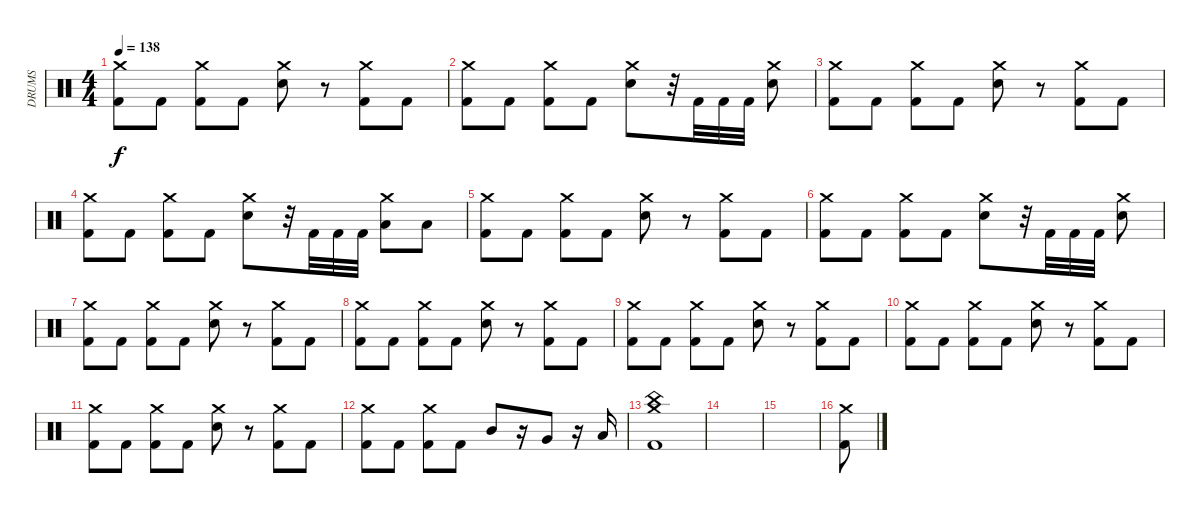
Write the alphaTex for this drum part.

\track ("DRUMS" "DRUMS") {instrument percussion}
\staff {score}
\articulation defaults
\ts (4 4)
\tempo 138
\clef neutral
\ks c
("Crash medium (hit)" "Kick (hit) 2").8{dy f} "Kick (hit) 2".8 ("Crash medium (hit)" "Kick (hit) 2").8 "Kick (hit) 2".8 ("Crash medium (hit)" "Electric Snare (hit)").8 r.8 ("Crash medium (hit)" "Kick (hit) 2").8 "Kick (hit) 2".8 |
("Crash medium (hit)" "Kick (hit) 2").8 "Kick (hit) 2".8 ("Crash medium (hit)" "Kick (hit) 2").8 "Kick (hit) 2".8 ("Crash medium (hit)" "Electric Snare (hit)").8 r.32 "Kick (hit) 2".32 "Kick (hit) 2".32 "Kick (hit) 2".32 ("Crash medium (hit)" "Electric Snare (hit)").8 |
("Crash medium (hit)" "Kick (hit) 2").8 "Kick (hit) 2".8 ("Crash medium (hit)" "Kick (hit) 2").8 "Kick (hit) 2".8 ("Crash medium (hit)" "Electric Snare (hit)").8 r.8 ("Crash medium (hit)" "Kick (hit) 2").8 "Kick (hit) 2".8 |
("Crash medium (hit)" "Kick (hit) 2").8 "Kick (hit) 2".8 ("Crash medium (hit)" "Kick (hit) 2").8 "Kick (hit) 2".8 ("Crash medium (hit)" "Electric Snare (hit)").8 r.32 "Kick (hit) 2".32 "Kick (hit) 2".32 "Kick (hit) 2".32 ("Crash medium (hit)" "Low Floor Tom (hit)").8 "Low Floor Tom (hit)".8 |
("Crash medium (hit)" "Kick (hit) 2").8 "Kick (hit) 2".8 ("Crash medium (hit)" "Kick (hit) 2").8 "Kick (hit) 2".8 ("Crash medium (hit)" "Electric Snare (hit)").8 r.8 ("Crash medium (hit)" "Kick (hit) 2").8 "Kick (hit) 2".8 |
("Crash medium (hit)" "Kick (hit) 2").8 "Kick (hit) 2".8 ("Crash medium (hit)" "Kick (hit) 2").8 "Kick (hit) 2".8 ("Crash medium (hit)" "Electric Snare (hit)").8 r.32 "Kick (hit) 2".32 "Kick (hit) 2".32 "Kick (hit) 2".32 ("Crash medium (hit)" "Electric Snare (hit)").8 |
("Crash medium (hit)" "Kick (hit) 2").8 "Kick (hit) 2".8 ("Crash medium (hit)" "Kick (hit) 2").8 "Kick (hit) 2".8 ("Electric Snare (hit)" "Crash medium (hit)").8 r.8 ("Crash medium (hit)" "Kick (hit) 2").8 "Kick (hit) 2".8 |
("Crash medium (hit)" "Kick (hit) 2").8 "Kick (hit) 2".8 ("Crash medium (hit)" "Kick (hit) 2").8 "Kick (hit) 2".8 ("Electric Snare (hit)" "Crash medium (hit)").8 r.8 ("Crash medium (hit)" "Kick (hit) 2").8 "Kick (hit) 2".8 |
("Crash medium (hit)" "Kick (hit) 2").8 "Kick (hit) 2".8 ("Crash medium (hit)" "Kick (hit) 2").8 "Kick (hit) 2".8 ("Electric Snare (hit)" "Crash medium (hit)").8 r.8 ("Crash medium (hit)" "Kick (hit) 2").8 "Kick (hit) 2".8 |
("Crash medium (hit)" "Kick (hit) 2").8 "Kick (hit) 2".8 ("Crash medium (hit)" "Kick (hit) 2").8 "Kick (hit) 2".8 ("Electric Snare (hit)" "Crash medium (hit)").8 r.8 ("Crash medium (hit)" "Kick (hit) 2").8 "Kick (hit) 2".8 |
("Crash medium (hit)" "Kick (hit) 2").8 "Kick (hit) 2".8 ("Crash medium (hit)" "Kick (hit) 2").8 "Kick (hit) 2".8 ("Electric Snare (hit)" "Crash medium (hit)").8 r.8 ("Crash medium (hit)" "Kick (hit) 2").8 "Kick (hit) 2".8 |
("Crash medium (hit)" "Kick (hit) 2").8 "Kick (hit) 2".8 ("Crash medium (hit)" "Kick (hit) 2").8 "Kick (hit) 2".8 "Mid Tom (hit)".8 r.16 "Very Low Tom (hit)".8 r.16 "Low Floor Tom (hit)".16 |
("Crash medium (hit)" "China (hit)" "Kick (hit) 2").1 |
|
|
("Crash medium (hit)" "Kick (hit) 2").8
